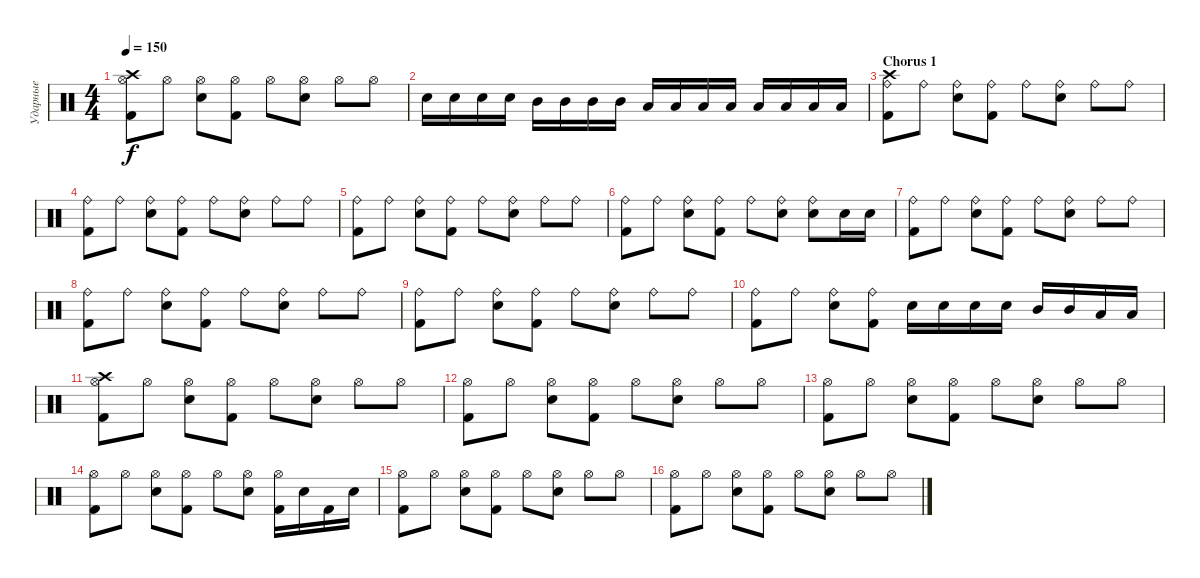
\track ("Ударные" "Ударные") {instrument percussion}
\staff {score}
\articulation defaults
\ts (4 4)
\tempo 150
\clef neutral
\ks c
("Hi-Hat (open)" "Crash high (hit)" "Kick (hit) 2").8{dy f} "Hi-Hat (open)".8 ("Hi-Hat (open)" "Snare (hit) 2").8 ("Hi-Hat (open)" "Kick (hit) 2").8 "Hi-Hat (open)".8 ("Hi-Hat (open)" "Snare (hit) 2").8 "Hi-Hat (open)".8 "Hi-Hat (open)".8 |
"Snare (hit) 2".16 "Snare (hit) 2".16 "Snare (hit) 2".16 "Snare (hit) 2".16 "Mid Tom (hit)".16 "Mid Tom (hit)".16 "Mid Tom (hit)".16 "Mid Tom (hit)".16 "Low Tom (hit)".16 "Low Tom (hit)".16 "Low Tom (hit)".16 "Low Tom (hit)".16 "Low Floor Tom (hit)".16 "Low Floor Tom (hit)".16 "Low Floor Tom (hit)".16 "Low Floor Tom (hit)".16 |
\section ("" "Chorus 1")
("Ride (bell)" "Crash high (hit)" "Kick (hit) 2").8 "Ride (bell)".8 ("Ride (bell)" "Snare (hit) 2").8 ("Ride (bell)" "Kick (hit) 2").8 "Ride (bell)".8 ("Ride (bell)" "Snare (hit) 2").8 "Ride (bell)".8 "Ride (bell)".8 |
("Ride (bell)" "Kick (hit) 2").8 "Ride (bell)".8 ("Ride (bell)" "Snare (hit) 2").8 ("Ride (bell)" "Kick (hit) 2").8 "Ride (bell)".8 ("Ride (bell)" "Snare (hit) 2").8 "Ride (bell)".8 "Ride (bell)".8 |
("Ride (bell)" "Kick (hit) 2").8 "Ride (bell)".8 ("Ride (bell)" "Snare (hit) 2").8 ("Ride (bell)" "Kick (hit) 2").8 "Ride (bell)".8 ("Ride (bell)" "Snare (hit) 2").8 "Ride (bell)".8 "Ride (bell)".8 |
("Ride (bell)" "Kick (hit) 2").8 "Ride (bell)".8 ("Ride (bell)" "Snare (hit) 2").8 ("Ride (bell)" "Kick (hit) 2").8 "Ride (bell)".8 ("Ride (bell)" "Snare (hit) 2").8 ("Ride (bell)" "Snare (hit) 2").8 "Snare (hit) 2".16 "Snare (hit) 2".16 |
("Ride (bell)" "Kick (hit) 2").8 "Ride (bell)".8 ("Ride (bell)" "Snare (hit) 2").8 ("Ride (bell)" "Kick (hit) 2").8 "Ride (bell)".8 ("Ride (bell)" "Snare (hit) 2").8 "Ride (bell)".8 "Ride (bell)".8 |
("Ride (bell)" "Kick (hit) 2").8 "Ride (bell)".8 ("Ride (bell)" "Snare (hit) 2").8 ("Ride (bell)" "Kick (hit) 2").8 "Ride (bell)".8 ("Ride (bell)" "Snare (hit) 2").8 "Ride (bell)".8 "Ride (bell)".8 |
("Ride (bell)" "Kick (hit) 2").8 "Ride (bell)".8 ("Ride (bell)" "Snare (hit) 2").8 ("Ride (bell)" "Kick (hit) 2").8 "Ride (bell)".8 ("Ride (bell)" "Snare (hit) 2").8 "Ride (bell)".8 "Ride (bell)".8 |
("Ride (bell)" "Kick (hit) 2").8 "Ride (bell)".8 ("Ride (bell)" "Snare (hit) 2").8 ("Ride (bell)" "Kick (hit) 2").8 "Snare (hit) 2".16 "Snare (hit) 2".16 "Snare (hit) 2".16 "Snare (hit) 2".16 "Mid Tom (hit)".16 "Mid Tom (hit)".16 "Low Tom (hit)".16 "Low Tom (hit)".16 |
("Hi-Hat (open)" "Crash high (hit)" "Kick (hit) 2").8 "Hi-Hat (open)".8 ("Hi-Hat (open)" "Snare (hit) 2").8 ("Hi-Hat (open)" "Kick (hit) 2").8 "Hi-Hat (open)".8 ("Hi-Hat (open)" "Snare (hit) 2").8 "Hi-Hat (open)".8 "Hi-Hat (open)".8 |
("Hi-Hat (open)" "Kick (hit) 2").8 "Hi-Hat (open)".8 ("Hi-Hat (open)" "Snare (hit) 2").8 ("Hi-Hat (open)" "Kick (hit) 2").8 "Hi-Hat (open)".8 ("Hi-Hat (open)" "Snare (hit) 2").8 "Hi-Hat (open)".8 "Hi-Hat (open)".8 |
("Hi-Hat (open)" "Kick (hit) 2").8 "Hi-Hat (open)".8 ("Hi-Hat (open)" "Snare (hit) 2").8 ("Hi-Hat (open)" "Kick (hit) 2").8 "Hi-Hat (open)".8 ("Hi-Hat (open)" "Snare (hit) 2").8 "Hi-Hat (open)".8 "Hi-Hat (open)".8 |
("Hi-Hat (open)" "Kick (hit) 2").8 "Hi-Hat (open)".8 ("Hi-Hat (open)" "Snare (hit) 2").8 ("Hi-Hat (open)" "Kick (hit) 2").8 "Hi-Hat (open)".8 ("Hi-Hat (open)" "Snare (hit) 2").8 ("Hi-Hat (open)" "Kick (hit) 2").16 "Snare (hit) 2".16 "Kick (hit) 2".16 "Snare (hit) 2".16 |
("Hi-Hat (open)" "Kick (hit) 2").8 "Hi-Hat (open)".8 ("Hi-Hat (open)" "Snare (hit) 2").8 ("Hi-Hat (open)" "Kick (hit) 2").8 "Hi-Hat (open)".8 ("Hi-Hat (open)" "Snare (hit) 2").8 "Hi-Hat (open)".8 "Hi-Hat (open)".8 |
("Hi-Hat (open)" "Kick (hit) 2").8 "Hi-Hat (open)".8 ("Hi-Hat (open)" "Snare (hit) 2").8 ("Hi-Hat (open)" "Kick (hit) 2").8 "Hi-Hat (open)".8 ("Hi-Hat (open)" "Snare (hit) 2").8 "Hi-Hat (open)".8 "Hi-Hat (open)".8
